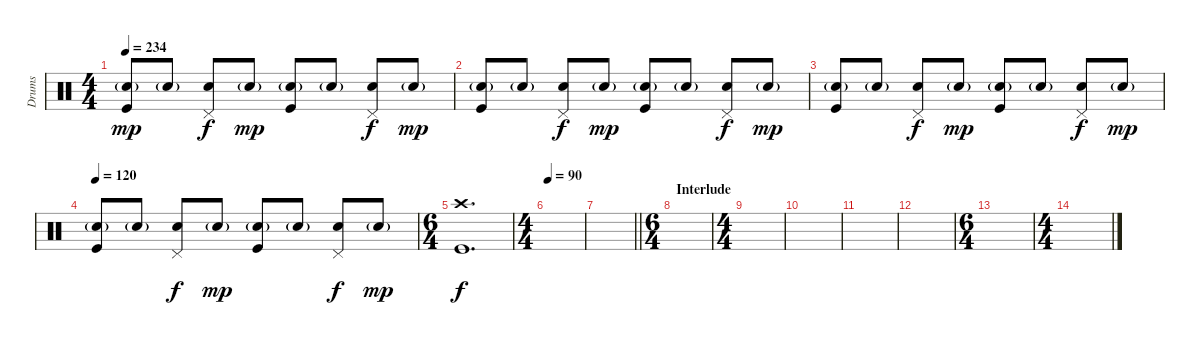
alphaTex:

\track ("Drums" "Drums") {instrument percussion}
\staff {score}
\articulation defaults
\ts (4 4)
\tempo 234
\clef neutral
\ks c
("Snare (hit) 2"{g} "Kick (hit)").8{dy mp} "Snare (hit) 2"{g}.8 ("Snare (hit) 2" "Pedal Hi-Hat (hit)").8{dy f} "Snare (hit) 2"{g}.8{dy mp} ("Snare (hit) 2"{g} "Kick (hit)").8 "Snare (hit) 2"{g}.8 ("Snare (hit) 2" "Pedal Hi-Hat (hit)").8{dy f} "Snare (hit) 2"{g}.8{dy mp} |
("Snare (hit) 2"{g} "Kick (hit)").8 "Snare (hit) 2"{g}.8 ("Snare (hit) 2" "Pedal Hi-Hat (hit)").8{dy f} "Snare (hit) 2"{g}.8{dy mp} ("Snare (hit) 2"{g} "Kick (hit)").8 "Snare (hit) 2"{g}.8 ("Snare (hit) 2" "Pedal Hi-Hat (hit)").8{dy f} "Snare (hit) 2"{g}.8{dy mp} |
("Snare (hit) 2"{g} "Kick (hit)").8 "Snare (hit) 2"{g}.8 ("Snare (hit) 2" "Pedal Hi-Hat (hit)").8{dy f} "Snare (hit) 2"{g}.8{dy mp} ("Snare (hit) 2"{g} "Kick (hit)").8 "Snare (hit) 2"{g}.8 ("Snare (hit) 2" "Pedal Hi-Hat (hit)").8{dy f} "Snare (hit) 2"{g}.8{dy mp} |
\tempo 120
("Snare (hit) 2"{g} "Kick (hit)").8 "Snare (hit) 2"{g}.8 ("Snare (hit) 2" "Pedal Hi-Hat (hit)").8{dy f} "Snare (hit) 2"{g}.8{dy mp} ("Snare (hit) 2"{g} "Kick (hit)").8 "Snare (hit) 2"{g}.8 ("Snare (hit) 2" "Pedal Hi-Hat (hit)").8{dy f} "Snare (hit) 2"{g}.8{dy mp} |
\ts (6 4)
("Crash high (hit)" "Kick (hit)").1{d dy f} |
\ts (4 4)
\tempo 90
|
\barLineRight lightlight
|
\ts (6 4)
\section ("" "Interlude")
|
\ts (4 4)
|
|
|
|
\ts (6 4)
|
\ts (4 4)
